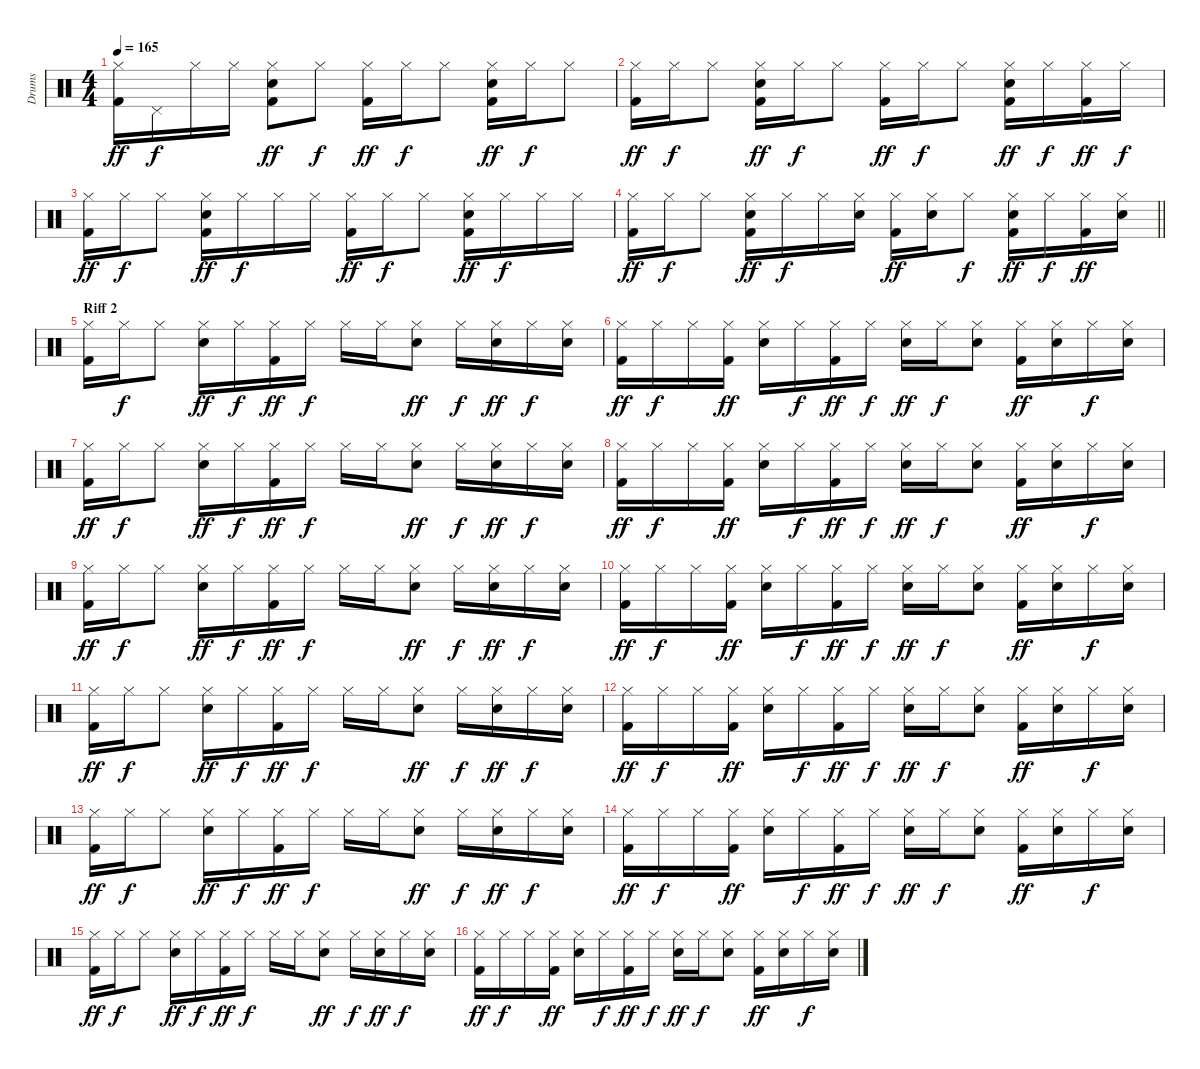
\track ("Drums" "Drums") {instrument percussion}
\staff {score}
\articulation defaults
\ts (4 4)
\tempo 165
\clef neutral
\ks c
("Kick (hit) 2" "Hi-Hat (closed)").16{dy ff} "Pedal Hi-Hat (hit)".16{dy f} "Hi-Hat (closed)".16 "Hi-Hat (closed)".16 ("Kick (hit) 2" "Snare (hit) 2" "Hi-Hat (closed)").8{dy ff} "Hi-Hat (closed)".8{dy f} ("Kick (hit) 2" "Hi-Hat (closed)").16{dy ff} "Hi-Hat (closed)".16{dy f} "Hi-Hat (closed)".8 ("Kick (hit) 2" "Snare (hit) 2" "Hi-Hat (closed)").16{dy ff} "Hi-Hat (closed)".16{dy f} "Hi-Hat (closed)".8 |
("Kick (hit) 2" "Hi-Hat (closed)").16{dy ff} "Hi-Hat (closed)".16{dy f} "Hi-Hat (closed)".8 ("Kick (hit) 2" "Snare (hit) 2" "Hi-Hat (closed)").16{dy ff} "Hi-Hat (closed)".16{dy f} "Hi-Hat (closed)".8 ("Kick (hit) 2" "Hi-Hat (closed)").16{dy ff} "Hi-Hat (closed)".16{dy f} "Hi-Hat (closed)".8 ("Kick (hit) 2" "Snare (hit) 2" "Hi-Hat (closed)").16{dy ff} "Hi-Hat (closed)".16{dy f} ("Kick (hit) 2" "Hi-Hat (closed)").16{dy ff} "Hi-Hat (closed)".16{dy f} |
("Kick (hit) 2" "Hi-Hat (closed)").16{dy ff} "Hi-Hat (closed)".16{dy f} "Hi-Hat (closed)".8 ("Kick (hit) 2" "Snare (hit) 2" "Hi-Hat (closed)").16{dy ff} "Hi-Hat (closed)".16{dy f} "Hi-Hat (closed)".16 "Hi-Hat (closed)".16 ("Kick (hit) 2" "Hi-Hat (closed)").16{dy ff} "Hi-Hat (closed)".16{dy f} "Hi-Hat (closed)".8 ("Kick (hit) 2" "Snare (hit) 2" "Hi-Hat (closed)").16{dy ff} "Hi-Hat (closed)".16{dy f} "Hi-Hat (closed)".16 "Hi-Hat (closed)".16 |
\barLineRight lightlight
("Kick (hit) 2" "Hi-Hat (closed)").16{dy ff} "Hi-Hat (closed)".16{dy f} "Hi-Hat (closed)".8 ("Kick (hit) 2" "Snare (hit) 2" "Hi-Hat (closed)").16{dy ff} "Hi-Hat (closed)".16{dy f} "Hi-Hat (closed)".16 ("Snare (hit) 2" "Hi-Hat (closed)").16 ("Kick (hit) 2" "Hi-Hat (closed)").16{dy ff} ("Snare (hit) 2" "Hi-Hat (closed)").16 "Hi-Hat (closed)".8{dy f} ("Kick (hit) 2" "Snare (hit) 2" "Hi-Hat (closed)").16{dy ff} "Hi-Hat (closed)".16{dy f} ("Kick (hit) 2" "Hi-Hat (closed)").16{dy ff} ("Snare (hit) 2" "Hi-Hat (closed)").16 |
\section ("" "Riff 2")
("Kick (hit) 2" "Hi-Hat (closed)").16 "Hi-Hat (closed)".16{dy f} "Hi-Hat (closed)".8 ("Snare (hit) 2" "Hi-Hat (closed)").16{dy ff} "Hi-Hat (closed)".16{dy f} ("Kick (hit) 2" "Hi-Hat (closed)").16{dy ff} "Hi-Hat (closed)".16{dy f} "Hi-Hat (closed)".16 "Hi-Hat (closed)".16 ("Snare (hit) 2" "Hi-Hat (closed)").8{dy ff} "Hi-Hat (closed)".16{dy f} ("Snare (hit) 2" "Hi-Hat (closed)").16{dy ff} "Hi-Hat (closed)".16{dy f} ("Snare (hit) 2" "Hi-Hat (closed)").16 |
("Kick (hit) 2" "Hi-Hat (closed)").16{dy ff} "Hi-Hat (closed)".16{dy f} "Hi-Hat (closed)".16 ("Kick (hit) 2" "Hi-Hat (closed)").16{dy ff} ("Snare (hit) 2" "Hi-Hat (closed)").16 "Hi-Hat (closed)".16{dy f} ("Kick (hit) 2" "Hi-Hat (closed)").16{dy ff} "Hi-Hat (closed)".16{dy f} ("Snare (hit) 2" "Hi-Hat (closed)").16{dy ff} "Hi-Hat (closed)".16{dy f} ("Snare (hit) 2" "Hi-Hat (closed)").8 ("Kick (hit) 2" "Hi-Hat (closed)").16{dy ff} ("Snare (hit) 2" "Hi-Hat (closed)").16 "Hi-Hat (closed)".16{dy f} ("Snare (hit) 2" "Hi-Hat (closed)").16 |
("Kick (hit) 2" "Hi-Hat (closed)").16{dy ff} "Hi-Hat (closed)".16{dy f} "Hi-Hat (closed)".8 ("Snare (hit) 2" "Hi-Hat (closed)").16{dy ff} "Hi-Hat (closed)".16{dy f} ("Kick (hit) 2" "Hi-Hat (closed)").16{dy ff} "Hi-Hat (closed)".16{dy f} "Hi-Hat (closed)".16 "Hi-Hat (closed)".16 ("Snare (hit) 2" "Hi-Hat (closed)").8{dy ff} "Hi-Hat (closed)".16{dy f} ("Snare (hit) 2" "Hi-Hat (closed)").16{dy ff} "Hi-Hat (closed)".16{dy f} ("Snare (hit) 2" "Hi-Hat (closed)").16 |
("Kick (hit) 2" "Hi-Hat (closed)").16{dy ff} "Hi-Hat (closed)".16{dy f} "Hi-Hat (closed)".16 ("Kick (hit) 2" "Hi-Hat (closed)").16{dy ff} ("Snare (hit) 2" "Hi-Hat (closed)").16 "Hi-Hat (closed)".16{dy f} ("Kick (hit) 2" "Hi-Hat (closed)").16{dy ff} "Hi-Hat (closed)".16{dy f} ("Snare (hit) 2" "Hi-Hat (closed)").16{dy ff} "Hi-Hat (closed)".16{dy f} ("Snare (hit) 2" "Hi-Hat (closed)").8 ("Kick (hit) 2" "Hi-Hat (closed)").16{dy ff} ("Snare (hit) 2" "Hi-Hat (closed)").16 "Hi-Hat (closed)".16{dy f} ("Snare (hit) 2" "Hi-Hat (closed)").16 |
("Kick (hit) 2" "Hi-Hat (closed)").16{dy ff} "Hi-Hat (closed)".16{dy f} "Hi-Hat (closed)".8 ("Snare (hit) 2" "Hi-Hat (closed)").16{dy ff} "Hi-Hat (closed)".16{dy f} ("Kick (hit) 2" "Hi-Hat (closed)").16{dy ff} "Hi-Hat (closed)".16{dy f} "Hi-Hat (closed)".16 "Hi-Hat (closed)".16 ("Snare (hit) 2" "Hi-Hat (closed)").8{dy ff} "Hi-Hat (closed)".16{dy f} ("Snare (hit) 2" "Hi-Hat (closed)").16{dy ff} "Hi-Hat (closed)".16{dy f} ("Snare (hit) 2" "Hi-Hat (closed)").16 |
("Kick (hit) 2" "Hi-Hat (closed)").16{dy ff} "Hi-Hat (closed)".16{dy f} "Hi-Hat (closed)".16 ("Kick (hit) 2" "Hi-Hat (closed)").16{dy ff} ("Snare (hit) 2" "Hi-Hat (closed)").16 "Hi-Hat (closed)".16{dy f} ("Kick (hit) 2" "Hi-Hat (closed)").16{dy ff} "Hi-Hat (closed)".16{dy f} ("Snare (hit) 2" "Hi-Hat (closed)").16{dy ff} "Hi-Hat (closed)".16{dy f} ("Snare (hit) 2" "Hi-Hat (closed)").8 ("Kick (hit) 2" "Hi-Hat (closed)").16{dy ff} ("Snare (hit) 2" "Hi-Hat (closed)").16 "Hi-Hat (closed)".16{dy f} ("Snare (hit) 2" "Hi-Hat (closed)").16 |
("Kick (hit) 2" "Hi-Hat (closed)").16{dy ff} "Hi-Hat (closed)".16{dy f} "Hi-Hat (closed)".8 ("Snare (hit) 2" "Hi-Hat (closed)").16{dy ff} "Hi-Hat (closed)".16{dy f} ("Kick (hit) 2" "Hi-Hat (closed)").16{dy ff} "Hi-Hat (closed)".16{dy f} "Hi-Hat (closed)".16 "Hi-Hat (closed)".16 ("Snare (hit) 2" "Hi-Hat (closed)").8{dy ff} "Hi-Hat (closed)".16{dy f} ("Snare (hit) 2" "Hi-Hat (closed)").16{dy ff} "Hi-Hat (closed)".16{dy f} ("Snare (hit) 2" "Hi-Hat (closed)").16 |
("Kick (hit) 2" "Hi-Hat (closed)").16{dy ff} "Hi-Hat (closed)".16{dy f} "Hi-Hat (closed)".16 ("Kick (hit) 2" "Hi-Hat (closed)").16{dy ff} ("Snare (hit) 2" "Hi-Hat (closed)").16 "Hi-Hat (closed)".16{dy f} ("Kick (hit) 2" "Hi-Hat (closed)").16{dy ff} "Hi-Hat (closed)".16{dy f} ("Snare (hit) 2" "Hi-Hat (closed)").16{dy ff} "Hi-Hat (closed)".16{dy f} ("Snare (hit) 2" "Hi-Hat (closed)").8 ("Kick (hit) 2" "Hi-Hat (closed)").16{dy ff} ("Snare (hit) 2" "Hi-Hat (closed)").16 "Hi-Hat (closed)".16{dy f} ("Snare (hit) 2" "Hi-Hat (closed)").16 |
("Kick (hit) 2" "Hi-Hat (closed)").16{dy ff} "Hi-Hat (closed)".16{dy f} "Hi-Hat (closed)".8 ("Snare (hit) 2" "Hi-Hat (closed)").16{dy ff} "Hi-Hat (closed)".16{dy f} ("Kick (hit) 2" "Hi-Hat (closed)").16{dy ff} "Hi-Hat (closed)".16{dy f} "Hi-Hat (closed)".16 "Hi-Hat (closed)".16 ("Snare (hit) 2" "Hi-Hat (closed)").8{dy ff} "Hi-Hat (closed)".16{dy f} ("Snare (hit) 2" "Hi-Hat (closed)").16{dy ff} "Hi-Hat (closed)".16{dy f} ("Snare (hit) 2" "Hi-Hat (closed)").16 |
("Kick (hit) 2" "Hi-Hat (closed)").16{dy ff} "Hi-Hat (closed)".16{dy f} "Hi-Hat (closed)".16 ("Kick (hit) 2" "Hi-Hat (closed)").16{dy ff} ("Snare (hit) 2" "Hi-Hat (closed)").16 "Hi-Hat (closed)".16{dy f} ("Kick (hit) 2" "Hi-Hat (closed)").16{dy ff} "Hi-Hat (closed)".16{dy f} ("Snare (hit) 2" "Hi-Hat (closed)").16{dy ff} "Hi-Hat (closed)".16{dy f} ("Snare (hit) 2" "Hi-Hat (closed)").8 ("Kick (hit) 2" "Hi-Hat (closed)").16{dy ff} ("Snare (hit) 2" "Hi-Hat (closed)").16 "Hi-Hat (closed)".16{dy f} ("Snare (hit) 2" "Hi-Hat (closed)").16 |
("Kick (hit) 2" "Hi-Hat (closed)").16{dy ff} "Hi-Hat (closed)".16{dy f} "Hi-Hat (closed)".8 ("Snare (hit) 2" "Hi-Hat (closed)").16{dy ff} "Hi-Hat (closed)".16{dy f} ("Kick (hit) 2" "Hi-Hat (closed)").16{dy ff} "Hi-Hat (closed)".16{dy f} "Hi-Hat (closed)".16 "Hi-Hat (closed)".16 ("Snare (hit) 2" "Hi-Hat (closed)").8{dy ff} "Hi-Hat (closed)".16{dy f} ("Snare (hit) 2" "Hi-Hat (closed)").16{dy ff} "Hi-Hat (closed)".16{dy f} ("Snare (hit) 2" "Hi-Hat (closed)").16 |
("Kick (hit) 2" "Hi-Hat (closed)").16{dy ff} "Hi-Hat (closed)".16{dy f} "Hi-Hat (closed)".16 ("Kick (hit) 2" "Hi-Hat (closed)").16{dy ff} ("Snare (hit) 2" "Hi-Hat (closed)").16 "Hi-Hat (closed)".16{dy f} ("Kick (hit) 2" "Hi-Hat (closed)").16{dy ff} "Hi-Hat (closed)".16{dy f} ("Snare (hit) 2" "Hi-Hat (closed)").16{dy ff} "Hi-Hat (closed)".16{dy f} ("Snare (hit) 2" "Hi-Hat (closed)").8 ("Kick (hit) 2" "Hi-Hat (closed)").16{dy ff} ("Snare (hit) 2" "Hi-Hat (closed)").16 "Hi-Hat (closed)".16{dy f} ("Snare (hit) 2" "Hi-Hat (closed)").16
